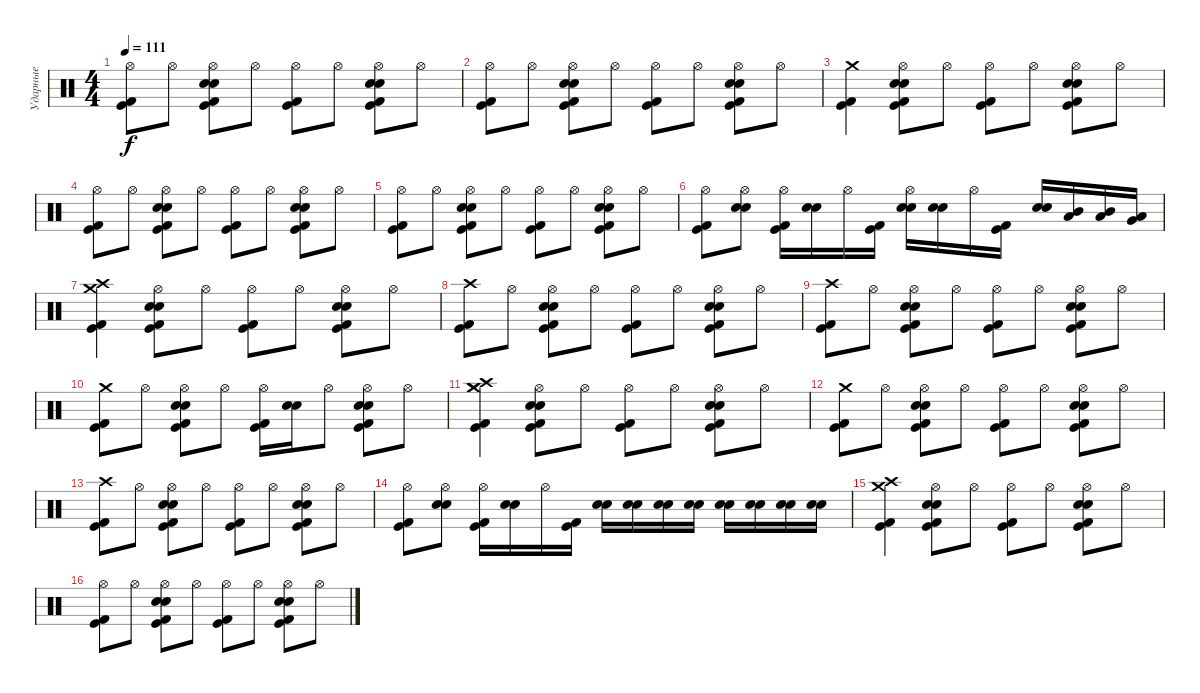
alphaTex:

\track ("Ударные" "Ударные") {instrument percussion}
\staff {score}
\articulation defaults
\ts (4 4)
\tempo 111
\clef neutral
\ks c
("Hi-Hat (open)" "Kick (hit)" "Kick (hit) 2").8{dy f} "Hi-Hat (open)".8 ("Hi-Hat (open)" "Kick (hit)" "Kick (hit) 2" "Snare (hit) 2" "Electric Snare (hit)").8 "Hi-Hat (open)".8 ("Hi-Hat (open)" "Kick (hit)" "Kick (hit) 2").8 "Hi-Hat (open)".8 ("Hi-Hat (open)" "Kick (hit)" "Kick (hit) 2" "Snare (hit) 2" "Electric Snare (hit)").8 "Hi-Hat (open)".8 |
("Hi-Hat (open)" "Kick (hit)" "Kick (hit) 2").8 "Hi-Hat (open)".8 ("Hi-Hat (open)" "Kick (hit)" "Kick (hit) 2" "Snare (hit) 2" "Electric Snare (hit)").8 "Hi-Hat (open)".8 ("Hi-Hat (open)" "Kick (hit)" "Kick (hit) 2").8 "Hi-Hat (open)".8 ("Hi-Hat (open)" "Kick (hit)" "Kick (hit) 2" "Snare (hit) 2" "Electric Snare (hit)").8 "Hi-Hat (open)".8 |
("Crash medium (hit)" "Kick (hit)" "Kick (hit) 2").4 ("Hi-Hat (open)" "Kick (hit)" "Kick (hit) 2" "Snare (hit) 2" "Electric Snare (hit)").8 "Hi-Hat (open)".8 ("Hi-Hat (open)" "Kick (hit)" "Kick (hit) 2").8 "Hi-Hat (open)".8 ("Hi-Hat (open)" "Kick (hit)" "Kick (hit) 2" "Snare (hit) 2" "Electric Snare (hit)").8 "Hi-Hat (open)".8 |
("Hi-Hat (open)" "Kick (hit)" "Kick (hit) 2").8 "Hi-Hat (open)".8 ("Hi-Hat (open)" "Kick (hit)" "Kick (hit) 2" "Snare (hit) 2" "Electric Snare (hit)").8 "Hi-Hat (open)".8 ("Hi-Hat (open)" "Kick (hit)" "Kick (hit) 2").8 "Hi-Hat (open)".8 ("Hi-Hat (open)" "Kick (hit)" "Kick (hit) 2" "Snare (hit) 2" "Electric Snare (hit)").8 "Hi-Hat (open)".8 |
("Hi-Hat (open)" "Kick (hit)" "Kick (hit) 2").8 "Hi-Hat (open)".8 ("Hi-Hat (open)" "Kick (hit)" "Kick (hit) 2" "Snare (hit) 2" "Electric Snare (hit)").8 "Hi-Hat (open)".8 ("Hi-Hat (open)" "Kick (hit)" "Kick (hit) 2").8 "Hi-Hat (open)".8 ("Hi-Hat (open)" "Kick (hit)" "Kick (hit) 2" "Snare (hit) 2" "Electric Snare (hit)").8 "Hi-Hat (open)".8 |
("Hi-Hat (open)" "Kick (hit)" "Kick (hit) 2").8 ("Hi-Hat (open)" "Snare (hit) 2" "Electric Snare (hit)").8 ("Hi-Hat (open)" "Kick (hit)" "Kick (hit) 2").16 ("Snare (hit) 2" "Electric Snare (hit)").16 "Hi-Hat (open)".16 ("Kick (hit)" "Kick (hit) 2").16 ("Hi-Hat (open)" "Snare (hit) 2" "Electric Snare (hit)").16 ("Snare (hit) 2" "Electric Snare (hit)").16 "Hi-Hat (open)".16 ("Kick (hit)" "Kick (hit) 2").16 ("Snare (hit) 2" "Electric Snare (hit)").16 ("Mid Tom (hit)" "Low Tom (hit)").16 ("Mid Tom (hit)" "Low Tom (hit)").16 ("Very Low Tom (hit)" "Low Floor Tom (hit)").16 |
("Crash high (hit)" "Kick (hit)" "Kick (hit) 2" "Crash medium (hit)").4 ("Hi-Hat (open)" "Kick (hit)" "Kick (hit) 2" "Snare (hit) 2" "Electric Snare (hit)").8 "Hi-Hat (open)".8 ("Hi-Hat (open)" "Kick (hit)" "Kick (hit) 2").8 "Hi-Hat (open)".8 ("Hi-Hat (open)" "Kick (hit)" "Kick (hit) 2" "Snare (hit) 2" "Electric Snare (hit)").8 "Hi-Hat (open)".8 |
("Crash high (hit)" "Kick (hit)" "Kick (hit) 2").8 "Hi-Hat (open)".8 ("Hi-Hat (open)" "Kick (hit)" "Kick (hit) 2" "Snare (hit) 2" "Electric Snare (hit)").8 "Hi-Hat (open)".8 ("Hi-Hat (open)" "Kick (hit)" "Kick (hit) 2").8 "Hi-Hat (open)".8 ("Hi-Hat (open)" "Kick (hit)" "Kick (hit) 2" "Snare (hit) 2" "Electric Snare (hit)").8 "Hi-Hat (open)".8 |
("Crash high (hit)" "Kick (hit)" "Kick (hit) 2").8 "Hi-Hat (open)".8 ("Hi-Hat (open)" "Kick (hit)" "Kick (hit) 2" "Snare (hit) 2" "Electric Snare (hit)").8 "Hi-Hat (open)".8 ("Hi-Hat (open)" "Kick (hit)" "Kick (hit) 2").8 "Hi-Hat (open)".8 ("Hi-Hat (open)" "Kick (hit)" "Kick (hit) 2" "Snare (hit) 2" "Electric Snare (hit)").8 "Hi-Hat (open)".8 |
("Crash medium (hit)" "Kick (hit)" "Kick (hit) 2").8 "Hi-Hat (open)".8 ("Hi-Hat (open)" "Kick (hit)" "Kick (hit) 2" "Snare (hit) 2" "Electric Snare (hit)").8 "Hi-Hat (open)".8 ("Hi-Hat (open)" "Kick (hit)" "Kick (hit) 2").16 ("Snare (hit) 2" "Electric Snare (hit)").16 "Hi-Hat (open)".8 ("Hi-Hat (open)" "Kick (hit)" "Kick (hit) 2" "Snare (hit) 2" "Electric Snare (hit)").8 "Hi-Hat (open)".8 |
("Crash high (hit)" "Kick (hit)" "Kick (hit) 2" "Crash medium (hit)" "Crash medium (hit)").4 ("Hi-Hat (open)" "Kick (hit)" "Kick (hit) 2" "Snare (hit) 2" "Electric Snare (hit)").8 "Hi-Hat (open)".8 ("Hi-Hat (open)" "Kick (hit)" "Kick (hit) 2").8 "Hi-Hat (open)".8 ("Hi-Hat (open)" "Kick (hit)" "Kick (hit) 2" "Snare (hit) 2" "Electric Snare (hit)").8 "Hi-Hat (open)".8 |
("Crash medium (hit)" "Kick (hit)" "Kick (hit) 2").8 "Hi-Hat (open)".8 ("Hi-Hat (open)" "Kick (hit)" "Kick (hit) 2" "Snare (hit) 2" "Electric Snare (hit)").8 "Hi-Hat (open)".8 ("Hi-Hat (open)" "Kick (hit)" "Kick (hit) 2").8 "Hi-Hat (open)".8 ("Hi-Hat (open)" "Kick (hit)" "Kick (hit) 2" "Snare (hit) 2" "Electric Snare (hit)").8 "Hi-Hat (open)".8 |
("Crash high (hit)" "Kick (hit)" "Kick (hit) 2").8 "Hi-Hat (open)".8 ("Hi-Hat (open)" "Kick (hit)" "Kick (hit) 2" "Snare (hit) 2" "Electric Snare (hit)").8 "Hi-Hat (open)".8 ("Hi-Hat (open)" "Kick (hit)" "Kick (hit) 2").8 "Hi-Hat (open)".8 ("Hi-Hat (open)" "Kick (hit)" "Kick (hit) 2" "Snare (hit) 2" "Electric Snare (hit)").8 "Hi-Hat (open)".8 |
("Hi-Hat (open)" "Kick (hit)" "Kick (hit) 2").8 ("Hi-Hat (open)" "Snare (hit) 2" "Electric Snare (hit)").8 ("Hi-Hat (open)" "Kick (hit)" "Kick (hit) 2").16 ("Snare (hit) 2" "Electric Snare (hit)").16 "Hi-Hat (open)".16 ("Kick (hit)" "Kick (hit) 2").16 ("Snare (hit) 2" "Electric Snare (hit)").16 ("Snare (hit) 2" "Electric Snare (hit)").16 ("Snare (hit) 2" "Electric Snare (hit)").16 ("Snare (hit) 2" "Electric Snare (hit)").16 ("Snare (hit) 2" "Electric Snare (hit)").16 ("Snare (hit) 2" "Electric Snare (hit)").16 ("Snare (hit) 2" "Electric Snare (hit)").16 ("Snare (hit) 2" "Electric Snare (hit)").16 |
("Crash high (hit)" "Kick (hit)" "Kick (hit) 2" "Crash medium (hit)").4 ("Hi-Hat (open)" "Kick (hit)" "Kick (hit) 2" "Snare (hit) 2" "Electric Snare (hit)").8 "Hi-Hat (open)".8 ("Hi-Hat (open)" "Kick (hit)" "Kick (hit) 2").8 "Hi-Hat (open)".8 ("Hi-Hat (open)" "Kick (hit)" "Kick (hit) 2" "Snare (hit) 2" "Electric Snare (hit)").8 "Hi-Hat (open)".8 |
("Hi-Hat (open)" "Kick (hit)" "Kick (hit) 2").8 "Hi-Hat (open)".8 ("Hi-Hat (open)" "Kick (hit)" "Kick (hit) 2" "Snare (hit) 2" "Electric Snare (hit)").8 "Hi-Hat (open)".8 ("Hi-Hat (open)" "Kick (hit)" "Kick (hit) 2").8 "Hi-Hat (open)".8 ("Hi-Hat (open)" "Kick (hit)" "Kick (hit) 2" "Snare (hit) 2" "Electric Snare (hit)").8 "Hi-Hat (open)".8
